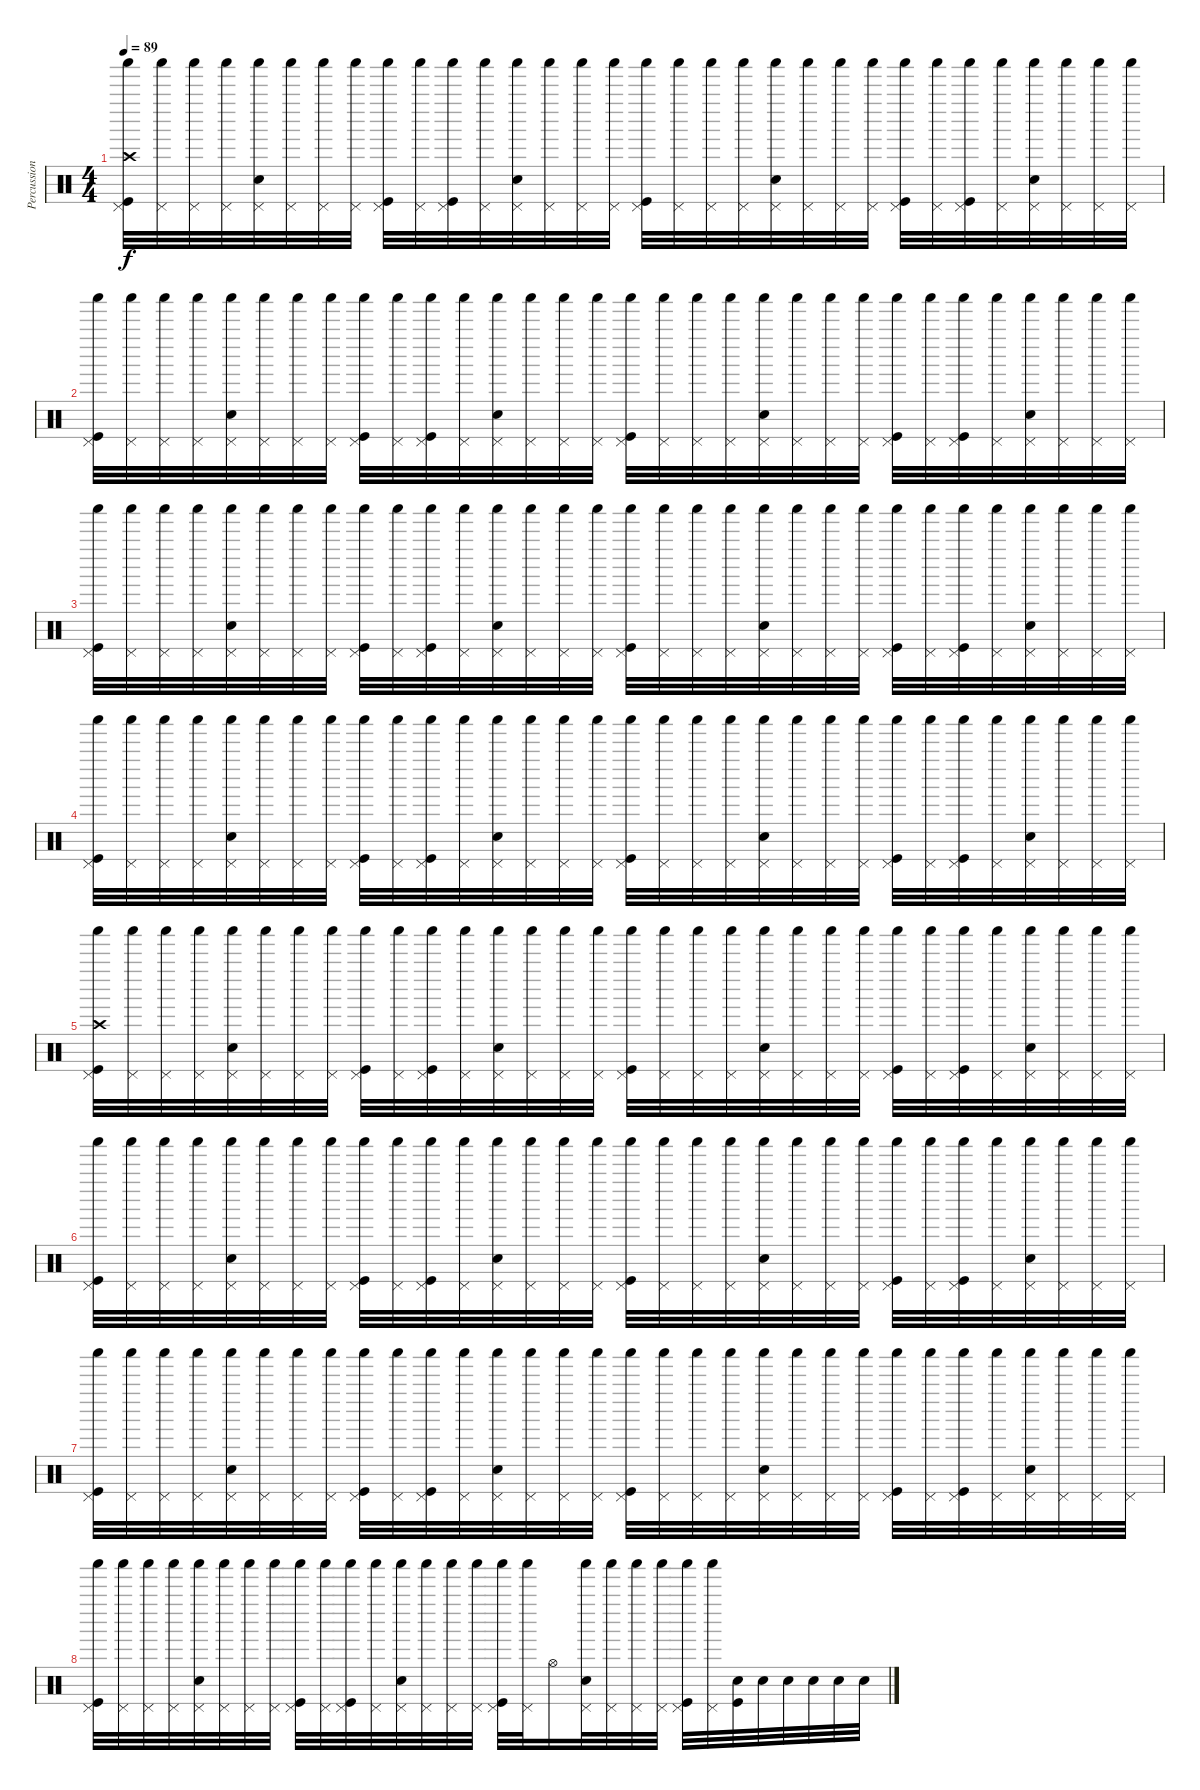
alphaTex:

\track ("Percussion" "Percussion") {instrument percussion}
\staff {score}
\articulation defaults
\ts (4 4)
\tempo 89
\clef neutral
\ks c
("Pedal Hi-Hat (hit)" "Shaker (hit)" "Crash high (hit)" "Kick (hit)").32{dy f} ("Pedal Hi-Hat (hit)" "Shaker (hit)").32 ("Pedal Hi-Hat (hit)" "Shaker (hit)").32 ("Pedal Hi-Hat (hit)" "Shaker (hit)").32 ("Pedal Hi-Hat (hit)" "Shaker (hit)" "Snare (hit) 2").32 ("Pedal Hi-Hat (hit)" "Shaker (hit)").32 ("Pedal Hi-Hat (hit)" "Shaker (hit)").32 ("Pedal Hi-Hat (hit)" "Shaker (hit)").32 ("Pedal Hi-Hat (hit)" "Shaker (hit)" "Kick (hit)").32 ("Pedal Hi-Hat (hit)" "Shaker (hit)").32 ("Pedal Hi-Hat (hit)" "Shaker (hit)" "Kick (hit)").32 ("Pedal Hi-Hat (hit)" "Shaker (hit)").32 ("Pedal Hi-Hat (hit)" "Shaker (hit)" "Snare (hit) 2").32 ("Pedal Hi-Hat (hit)" "Shaker (hit)").32 ("Pedal Hi-Hat (hit)" "Shaker (hit)").32 ("Pedal Hi-Hat (hit)" "Shaker (hit)").32 ("Pedal Hi-Hat (hit)" "Shaker (hit)" "Kick (hit)").32 ("Pedal Hi-Hat (hit)" "Shaker (hit)").32 ("Pedal Hi-Hat (hit)" "Shaker (hit)").32 ("Pedal Hi-Hat (hit)" "Shaker (hit)").32 ("Pedal Hi-Hat (hit)" "Shaker (hit)" "Snare (hit) 2").32 ("Pedal Hi-Hat (hit)" "Shaker (hit)").32 ("Pedal Hi-Hat (hit)" "Shaker (hit)").32 ("Pedal Hi-Hat (hit)" "Shaker (hit)").32 ("Pedal Hi-Hat (hit)" "Shaker (hit)" "Kick (hit)").32 ("Pedal Hi-Hat (hit)" "Shaker (hit)").32 ("Pedal Hi-Hat (hit)" "Shaker (hit)" "Kick (hit)").32 ("Pedal Hi-Hat (hit)" "Shaker (hit)").32 ("Pedal Hi-Hat (hit)" "Shaker (hit)" "Snare (hit) 2").32 ("Pedal Hi-Hat (hit)" "Shaker (hit)").32 ("Pedal Hi-Hat (hit)" "Shaker (hit)").32 ("Pedal Hi-Hat (hit)" "Shaker (hit)").32 |
("Pedal Hi-Hat (hit)" "Shaker (hit)" "Kick (hit)").32 ("Pedal Hi-Hat (hit)" "Shaker (hit)").32 ("Pedal Hi-Hat (hit)" "Shaker (hit)").32 ("Pedal Hi-Hat (hit)" "Shaker (hit)").32 ("Pedal Hi-Hat (hit)" "Shaker (hit)" "Snare (hit) 2").32 ("Pedal Hi-Hat (hit)" "Shaker (hit)").32 ("Pedal Hi-Hat (hit)" "Shaker (hit)").32 ("Pedal Hi-Hat (hit)" "Shaker (hit)").32 ("Pedal Hi-Hat (hit)" "Shaker (hit)" "Kick (hit)").32 ("Pedal Hi-Hat (hit)" "Shaker (hit)").32 ("Pedal Hi-Hat (hit)" "Shaker (hit)" "Kick (hit)").32 ("Pedal Hi-Hat (hit)" "Shaker (hit)").32 ("Pedal Hi-Hat (hit)" "Shaker (hit)" "Snare (hit) 2").32 ("Pedal Hi-Hat (hit)" "Shaker (hit)").32 ("Pedal Hi-Hat (hit)" "Shaker (hit)").32 ("Pedal Hi-Hat (hit)" "Shaker (hit)").32 ("Pedal Hi-Hat (hit)" "Shaker (hit)" "Kick (hit)").32 ("Pedal Hi-Hat (hit)" "Shaker (hit)").32 ("Pedal Hi-Hat (hit)" "Shaker (hit)").32 ("Pedal Hi-Hat (hit)" "Shaker (hit)").32 ("Pedal Hi-Hat (hit)" "Shaker (hit)" "Snare (hit) 2").32 ("Pedal Hi-Hat (hit)" "Shaker (hit)").32 ("Pedal Hi-Hat (hit)" "Shaker (hit)").32 ("Pedal Hi-Hat (hit)" "Shaker (hit)").32 ("Pedal Hi-Hat (hit)" "Shaker (hit)" "Kick (hit)").32 ("Pedal Hi-Hat (hit)" "Shaker (hit)").32 ("Pedal Hi-Hat (hit)" "Shaker (hit)" "Kick (hit)").32 ("Pedal Hi-Hat (hit)" "Shaker (hit)").32 ("Pedal Hi-Hat (hit)" "Shaker (hit)" "Snare (hit) 2").32 ("Pedal Hi-Hat (hit)" "Shaker (hit)").32 ("Pedal Hi-Hat (hit)" "Shaker (hit)").32 ("Pedal Hi-Hat (hit)" "Shaker (hit)").32 |
("Pedal Hi-Hat (hit)" "Shaker (hit)" "Kick (hit)").32 ("Pedal Hi-Hat (hit)" "Shaker (hit)").32 ("Pedal Hi-Hat (hit)" "Shaker (hit)").32 ("Pedal Hi-Hat (hit)" "Shaker (hit)").32 ("Pedal Hi-Hat (hit)" "Shaker (hit)" "Snare (hit) 2").32 ("Pedal Hi-Hat (hit)" "Shaker (hit)").32 ("Pedal Hi-Hat (hit)" "Shaker (hit)").32 ("Pedal Hi-Hat (hit)" "Shaker (hit)").32 ("Pedal Hi-Hat (hit)" "Shaker (hit)" "Kick (hit)").32 ("Pedal Hi-Hat (hit)" "Shaker (hit)").32 ("Pedal Hi-Hat (hit)" "Shaker (hit)" "Kick (hit)").32 ("Pedal Hi-Hat (hit)" "Shaker (hit)").32 ("Pedal Hi-Hat (hit)" "Shaker (hit)" "Snare (hit) 2").32 ("Pedal Hi-Hat (hit)" "Shaker (hit)").32 ("Pedal Hi-Hat (hit)" "Shaker (hit)").32 ("Pedal Hi-Hat (hit)" "Shaker (hit)").32 ("Pedal Hi-Hat (hit)" "Shaker (hit)" "Kick (hit)").32 ("Pedal Hi-Hat (hit)" "Shaker (hit)").32 ("Pedal Hi-Hat (hit)" "Shaker (hit)").32 ("Pedal Hi-Hat (hit)" "Shaker (hit)").32 ("Pedal Hi-Hat (hit)" "Shaker (hit)" "Snare (hit) 2").32 ("Pedal Hi-Hat (hit)" "Shaker (hit)").32 ("Pedal Hi-Hat (hit)" "Shaker (hit)").32 ("Pedal Hi-Hat (hit)" "Shaker (hit)").32 ("Pedal Hi-Hat (hit)" "Shaker (hit)" "Kick (hit)").32 ("Pedal Hi-Hat (hit)" "Shaker (hit)").32 ("Pedal Hi-Hat (hit)" "Shaker (hit)" "Kick (hit)").32 ("Pedal Hi-Hat (hit)" "Shaker (hit)").32 ("Pedal Hi-Hat (hit)" "Shaker (hit)" "Snare (hit) 2").32 ("Pedal Hi-Hat (hit)" "Shaker (hit)").32 ("Pedal Hi-Hat (hit)" "Shaker (hit)").32 ("Pedal Hi-Hat (hit)" "Shaker (hit)").32 |
("Pedal Hi-Hat (hit)" "Shaker (hit)" "Kick (hit)").32 ("Pedal Hi-Hat (hit)" "Shaker (hit)").32 ("Pedal Hi-Hat (hit)" "Shaker (hit)").32 ("Pedal Hi-Hat (hit)" "Shaker (hit)").32 ("Pedal Hi-Hat (hit)" "Shaker (hit)" "Snare (hit) 2").32 ("Pedal Hi-Hat (hit)" "Shaker (hit)").32 ("Pedal Hi-Hat (hit)" "Shaker (hit)").32 ("Pedal Hi-Hat (hit)" "Shaker (hit)").32 ("Pedal Hi-Hat (hit)" "Shaker (hit)" "Kick (hit)").32 ("Pedal Hi-Hat (hit)" "Shaker (hit)").32 ("Pedal Hi-Hat (hit)" "Shaker (hit)" "Kick (hit)").32 ("Pedal Hi-Hat (hit)" "Shaker (hit)").32 ("Pedal Hi-Hat (hit)" "Shaker (hit)" "Snare (hit) 2").32 ("Pedal Hi-Hat (hit)" "Shaker (hit)").32 ("Pedal Hi-Hat (hit)" "Shaker (hit)").32 ("Pedal Hi-Hat (hit)" "Shaker (hit)").32 ("Pedal Hi-Hat (hit)" "Shaker (hit)" "Kick (hit)").32 ("Pedal Hi-Hat (hit)" "Shaker (hit)").32 ("Pedal Hi-Hat (hit)" "Shaker (hit)").32 ("Pedal Hi-Hat (hit)" "Shaker (hit)").32 ("Pedal Hi-Hat (hit)" "Shaker (hit)" "Snare (hit) 2").32 ("Pedal Hi-Hat (hit)" "Shaker (hit)").32 ("Pedal Hi-Hat (hit)" "Shaker (hit)").32 ("Pedal Hi-Hat (hit)" "Shaker (hit)").32 ("Pedal Hi-Hat (hit)" "Shaker (hit)" "Kick (hit)").32 ("Pedal Hi-Hat (hit)" "Shaker (hit)").32 ("Pedal Hi-Hat (hit)" "Shaker (hit)" "Kick (hit)").32 ("Pedal Hi-Hat (hit)" "Shaker (hit)").32 ("Pedal Hi-Hat (hit)" "Shaker (hit)" "Snare (hit) 2").32 ("Pedal Hi-Hat (hit)" "Shaker (hit)").32 ("Pedal Hi-Hat (hit)" "Shaker (hit)").32 ("Pedal Hi-Hat (hit)" "Shaker (hit)").32 |
("Pedal Hi-Hat (hit)" "Shaker (hit)" "Crash high (hit)" "Kick (hit)").32 ("Pedal Hi-Hat (hit)" "Shaker (hit)").32 ("Pedal Hi-Hat (hit)" "Shaker (hit)").32 ("Pedal Hi-Hat (hit)" "Shaker (hit)").32 ("Pedal Hi-Hat (hit)" "Shaker (hit)" "Snare (hit) 2").32 ("Pedal Hi-Hat (hit)" "Shaker (hit)").32 ("Pedal Hi-Hat (hit)" "Shaker (hit)").32 ("Pedal Hi-Hat (hit)" "Shaker (hit)").32 ("Pedal Hi-Hat (hit)" "Shaker (hit)" "Kick (hit)").32 ("Pedal Hi-Hat (hit)" "Shaker (hit)").32 ("Pedal Hi-Hat (hit)" "Shaker (hit)" "Kick (hit)").32 ("Pedal Hi-Hat (hit)" "Shaker (hit)").32 ("Pedal Hi-Hat (hit)" "Shaker (hit)" "Snare (hit) 2").32 ("Pedal Hi-Hat (hit)" "Shaker (hit)").32 ("Pedal Hi-Hat (hit)" "Shaker (hit)").32 ("Pedal Hi-Hat (hit)" "Shaker (hit)").32 ("Pedal Hi-Hat (hit)" "Shaker (hit)" "Kick (hit)").32 ("Pedal Hi-Hat (hit)" "Shaker (hit)").32 ("Pedal Hi-Hat (hit)" "Shaker (hit)").32 ("Pedal Hi-Hat (hit)" "Shaker (hit)").32 ("Pedal Hi-Hat (hit)" "Shaker (hit)" "Snare (hit) 2").32 ("Pedal Hi-Hat (hit)" "Shaker (hit)").32 ("Pedal Hi-Hat (hit)" "Shaker (hit)").32 ("Pedal Hi-Hat (hit)" "Shaker (hit)").32 ("Pedal Hi-Hat (hit)" "Shaker (hit)" "Kick (hit)").32 ("Pedal Hi-Hat (hit)" "Shaker (hit)").32 ("Pedal Hi-Hat (hit)" "Shaker (hit)" "Kick (hit)").32 ("Pedal Hi-Hat (hit)" "Shaker (hit)").32 ("Pedal Hi-Hat (hit)" "Shaker (hit)" "Snare (hit) 2").32 ("Pedal Hi-Hat (hit)" "Shaker (hit)").32 ("Pedal Hi-Hat (hit)" "Shaker (hit)").32 ("Pedal Hi-Hat (hit)" "Shaker (hit)").32 |
("Pedal Hi-Hat (hit)" "Shaker (hit)" "Kick (hit)").32 ("Pedal Hi-Hat (hit)" "Shaker (hit)").32 ("Pedal Hi-Hat (hit)" "Shaker (hit)").32 ("Pedal Hi-Hat (hit)" "Shaker (hit)").32 ("Pedal Hi-Hat (hit)" "Shaker (hit)" "Snare (hit) 2").32 ("Pedal Hi-Hat (hit)" "Shaker (hit)").32 ("Pedal Hi-Hat (hit)" "Shaker (hit)").32 ("Pedal Hi-Hat (hit)" "Shaker (hit)").32 ("Pedal Hi-Hat (hit)" "Shaker (hit)" "Kick (hit)").32 ("Pedal Hi-Hat (hit)" "Shaker (hit)").32 ("Pedal Hi-Hat (hit)" "Shaker (hit)" "Kick (hit)").32 ("Pedal Hi-Hat (hit)" "Shaker (hit)").32 ("Pedal Hi-Hat (hit)" "Shaker (hit)" "Snare (hit) 2").32 ("Pedal Hi-Hat (hit)" "Shaker (hit)").32 ("Pedal Hi-Hat (hit)" "Shaker (hit)").32 ("Pedal Hi-Hat (hit)" "Shaker (hit)").32 ("Pedal Hi-Hat (hit)" "Shaker (hit)" "Kick (hit)").32 ("Pedal Hi-Hat (hit)" "Shaker (hit)").32 ("Pedal Hi-Hat (hit)" "Shaker (hit)").32 ("Pedal Hi-Hat (hit)" "Shaker (hit)").32 ("Pedal Hi-Hat (hit)" "Shaker (hit)" "Snare (hit) 2").32 ("Pedal Hi-Hat (hit)" "Shaker (hit)").32 ("Pedal Hi-Hat (hit)" "Shaker (hit)").32 ("Pedal Hi-Hat (hit)" "Shaker (hit)").32 ("Pedal Hi-Hat (hit)" "Shaker (hit)" "Kick (hit)").32 ("Pedal Hi-Hat (hit)" "Shaker (hit)").32 ("Pedal Hi-Hat (hit)" "Shaker (hit)" "Kick (hit)").32 ("Pedal Hi-Hat (hit)" "Shaker (hit)").32 ("Pedal Hi-Hat (hit)" "Shaker (hit)" "Snare (hit) 2").32 ("Pedal Hi-Hat (hit)" "Shaker (hit)").32 ("Pedal Hi-Hat (hit)" "Shaker (hit)").32 ("Pedal Hi-Hat (hit)" "Shaker (hit)").32 |
("Pedal Hi-Hat (hit)" "Shaker (hit)" "Kick (hit)").32 ("Pedal Hi-Hat (hit)" "Shaker (hit)").32 ("Pedal Hi-Hat (hit)" "Shaker (hit)").32 ("Pedal Hi-Hat (hit)" "Shaker (hit)").32 ("Pedal Hi-Hat (hit)" "Shaker (hit)" "Snare (hit) 2").32 ("Pedal Hi-Hat (hit)" "Shaker (hit)").32 ("Pedal Hi-Hat (hit)" "Shaker (hit)").32 ("Pedal Hi-Hat (hit)" "Shaker (hit)").32 ("Pedal Hi-Hat (hit)" "Shaker (hit)" "Kick (hit)").32 ("Pedal Hi-Hat (hit)" "Shaker (hit)").32 ("Pedal Hi-Hat (hit)" "Shaker (hit)" "Kick (hit)").32 ("Pedal Hi-Hat (hit)" "Shaker (hit)").32 ("Pedal Hi-Hat (hit)" "Shaker (hit)" "Snare (hit) 2").32 ("Pedal Hi-Hat (hit)" "Shaker (hit)").32 ("Pedal Hi-Hat (hit)" "Shaker (hit)").32 ("Pedal Hi-Hat (hit)" "Shaker (hit)").32 ("Pedal Hi-Hat (hit)" "Shaker (hit)" "Kick (hit)").32 ("Pedal Hi-Hat (hit)" "Shaker (hit)").32 ("Pedal Hi-Hat (hit)" "Shaker (hit)").32 ("Pedal Hi-Hat (hit)" "Shaker (hit)").32 ("Pedal Hi-Hat (hit)" "Shaker (hit)" "Snare (hit) 2").32 ("Pedal Hi-Hat (hit)" "Shaker (hit)").32 ("Pedal Hi-Hat (hit)" "Shaker (hit)").32 ("Pedal Hi-Hat (hit)" "Shaker (hit)").32 ("Pedal Hi-Hat (hit)" "Shaker (hit)" "Kick (hit)").32 ("Pedal Hi-Hat (hit)" "Shaker (hit)").32 ("Pedal Hi-Hat (hit)" "Shaker (hit)" "Kick (hit)").32 ("Pedal Hi-Hat (hit)" "Shaker (hit)").32 ("Pedal Hi-Hat (hit)" "Shaker (hit)" "Snare (hit) 2").32 ("Pedal Hi-Hat (hit)" "Shaker (hit)").32 ("Pedal Hi-Hat (hit)" "Shaker (hit)").32 ("Pedal Hi-Hat (hit)" "Shaker (hit)").32 |
("Pedal Hi-Hat (hit)" "Shaker (hit)" "Kick (hit)").32 ("Pedal Hi-Hat (hit)" "Shaker (hit)").32 ("Pedal Hi-Hat (hit)" "Shaker (hit)").32 ("Pedal Hi-Hat (hit)" "Shaker (hit)").32 ("Pedal Hi-Hat (hit)" "Shaker (hit)" "Snare (hit) 2").32 ("Pedal Hi-Hat (hit)" "Shaker (hit)").32 ("Pedal Hi-Hat (hit)" "Shaker (hit)").32 ("Pedal Hi-Hat (hit)" "Shaker (hit)").32 ("Pedal Hi-Hat (hit)" "Shaker (hit)" "Kick (hit)").32 ("Pedal Hi-Hat (hit)" "Shaker (hit)").32 ("Pedal Hi-Hat (hit)" "Shaker (hit)" "Kick (hit)").32 ("Pedal Hi-Hat (hit)" "Shaker (hit)").32 ("Pedal Hi-Hat (hit)" "Shaker (hit)" "Snare (hit) 2").32 ("Pedal Hi-Hat (hit)" "Shaker (hit)").32 ("Pedal Hi-Hat (hit)" "Shaker (hit)").32 ("Pedal Hi-Hat (hit)" "Shaker (hit)").32 ("Pedal Hi-Hat (hit)" "Shaker (hit)" "Kick (hit)").32 ("Pedal Hi-Hat (hit)" "Shaker (hit)").32 "Hi-Hat (open)".16 ("Pedal Hi-Hat (hit)" "Shaker (hit)" "Snare (hit) 2").32 ("Pedal Hi-Hat (hit)" "Shaker (hit)").32 ("Pedal Hi-Hat (hit)" "Shaker (hit)").32 ("Pedal Hi-Hat (hit)" "Shaker (hit)").32 ("Pedal Hi-Hat (hit)" "Shaker (hit)" "Kick (hit)").32 ("Pedal Hi-Hat (hit)" "Shaker (hit)").32 ("Snare (hit) 2" "Kick (hit)").32 "Snare (hit) 2".32 "Snare (hit) 2".32 "Snare (hit) 2".32 "Snare (hit) 2".32 "Snare (hit) 2".32
